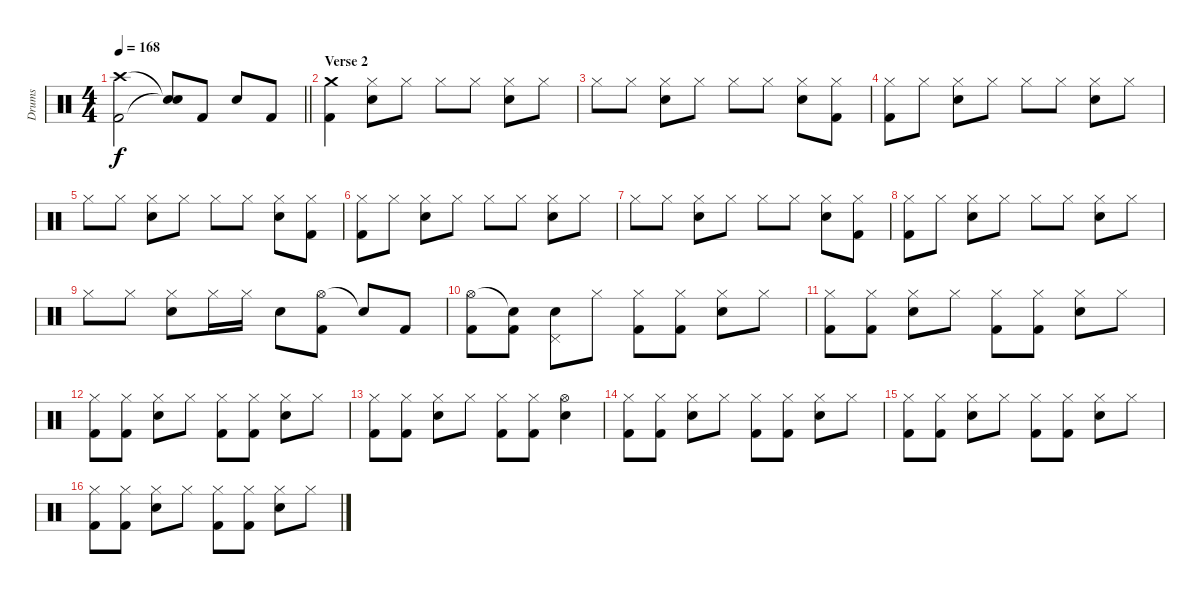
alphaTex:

\track ("Drums" "Drums") {instrument percussion}
\staff {score}
\articulation defaults
\ts (4 4)
\tempo 168
\clef neutral
\barLineRight lightlight
\ks c
("Crash high (hit)" "Kick (hit) 2").2{dy f} ("Snare (hit)"{t} "Snare (hit)"{t}).8 "Kick (hit) 2".8 "Electric Snare (hit)".8 "Kick (hit) 2".8 |
\section ("" "Verse 2")
("Crash medium (hit)" "Kick (hit) 2").4 ("Hi-Hat (closed)" "Electric Snare (hit)").8 "Hi-Hat (closed)".8 "Hi-Hat (closed)".8 "Hi-Hat (closed)".8 ("Hi-Hat (closed)" "Electric Snare (hit)").8 "Hi-Hat (closed)".8 |
"Hi-Hat (closed)".8 "Hi-Hat (closed)".8 ("Hi-Hat (closed)" "Electric Snare (hit)").8 "Hi-Hat (closed)".8 "Hi-Hat (closed)".8 "Hi-Hat (closed)".8 ("Hi-Hat (closed)" "Electric Snare (hit)").8 ("Hi-Hat (closed)" "Kick (hit) 2").8 |
("Hi-Hat (closed)" "Kick (hit) 2").8 "Hi-Hat (closed)".8 ("Hi-Hat (closed)" "Electric Snare (hit)").8 "Hi-Hat (closed)".8 "Hi-Hat (closed)".8 "Hi-Hat (closed)".8 ("Hi-Hat (closed)" "Electric Snare (hit)").8 "Hi-Hat (closed)".8 |
"Hi-Hat (closed)".8 "Hi-Hat (closed)".8 ("Hi-Hat (closed)" "Electric Snare (hit)").8 "Hi-Hat (closed)".8 "Hi-Hat (closed)".8 "Hi-Hat (closed)".8 ("Hi-Hat (closed)" "Electric Snare (hit)").8 ("Hi-Hat (closed)" "Kick (hit) 2").8 |
("Hi-Hat (closed)" "Kick (hit) 2").8 "Hi-Hat (closed)".8 ("Hi-Hat (closed)" "Electric Snare (hit)").8 "Hi-Hat (closed)".8 "Hi-Hat (closed)".8 "Hi-Hat (closed)".8 ("Hi-Hat (closed)" "Electric Snare (hit)").8 "Hi-Hat (closed)".8 |
"Hi-Hat (closed)".8 "Hi-Hat (closed)".8 ("Hi-Hat (closed)" "Electric Snare (hit)").8 "Hi-Hat (closed)".8 "Hi-Hat (closed)".8 "Hi-Hat (closed)".8 ("Hi-Hat (closed)" "Electric Snare (hit)").8 ("Hi-Hat (closed)" "Kick (hit) 2").8 |
("Hi-Hat (closed)" "Kick (hit) 2").8 "Hi-Hat (closed)".8 ("Hi-Hat (closed)" "Electric Snare (hit)").8 "Hi-Hat (closed)".8 "Hi-Hat (closed)".8 "Hi-Hat (closed)".8 ("Hi-Hat (closed)" "Electric Snare (hit)").8 "Hi-Hat (closed)".8 |
"Hi-Hat (closed)".8 "Hi-Hat (closed)".8 ("Hi-Hat (closed)" "Electric Snare (hit)").8 "Hi-Hat (closed)".16 "Hi-Hat (closed)".16 "Electric Snare (hit)".8 ("Hi-Hat (open)" "Kick (hit) 2").8 "Snare (hit)"{t}.8 "Kick (hit) 2".8 |
("Hi-Hat (open)" "Kick (hit) 2").8 ("Snare (hit)"{t} "Kick (hit) 2").8 ("Pedal Hi-Hat (hit)" "Electric Snare (hit)").8 "Hi-Hat (closed)".8 ("Hi-Hat (closed)" "Kick (hit) 2").8 ("Hi-Hat (closed)" "Kick (hit) 2").8 ("Hi-Hat (closed)" "Electric Snare (hit)").8 "Hi-Hat (closed)".8 |
("Hi-Hat (closed)" "Kick (hit) 2").8 ("Hi-Hat (closed)" "Kick (hit) 2").8 ("Hi-Hat (closed)" "Electric Snare (hit)").8 "Hi-Hat (closed)".8 ("Hi-Hat (closed)" "Kick (hit) 2").8 ("Hi-Hat (closed)" "Kick (hit) 2").8 ("Hi-Hat (closed)" "Electric Snare (hit)").8 "Hi-Hat (closed)".8 |
("Hi-Hat (closed)" "Kick (hit) 2").8 ("Hi-Hat (closed)" "Kick (hit) 2").8 ("Hi-Hat (closed)" "Electric Snare (hit)").8 "Hi-Hat (closed)".8 ("Hi-Hat (closed)" "Kick (hit) 2").8 ("Hi-Hat (closed)" "Kick (hit) 2").8 ("Hi-Hat (closed)" "Electric Snare (hit)").8 "Hi-Hat (closed)".8 |
("Hi-Hat (closed)" "Kick (hit) 2").8 ("Hi-Hat (closed)" "Kick (hit) 2").8 ("Hi-Hat (closed)" "Electric Snare (hit)").8 "Hi-Hat (closed)".8 ("Hi-Hat (closed)" "Kick (hit) 2").8 ("Hi-Hat (closed)" "Kick (hit) 2").8 ("Hi-Hat (open)" "Electric Snare (hit)").4 |
("Hi-Hat (closed)" "Kick (hit) 2").8 ("Hi-Hat (closed)" "Kick (hit) 2").8 ("Hi-Hat (closed)" "Electric Snare (hit)").8 "Hi-Hat (closed)".8 ("Hi-Hat (closed)" "Kick (hit) 2").8 ("Hi-Hat (closed)" "Kick (hit) 2").8 ("Hi-Hat (closed)" "Electric Snare (hit)").8 "Hi-Hat (closed)".8 |
("Hi-Hat (closed)" "Kick (hit) 2").8 ("Hi-Hat (closed)" "Kick (hit) 2").8 ("Hi-Hat (closed)" "Electric Snare (hit)").8 "Hi-Hat (closed)".8 ("Hi-Hat (closed)" "Kick (hit) 2").8 ("Hi-Hat (closed)" "Kick (hit) 2").8 ("Hi-Hat (closed)" "Electric Snare (hit)").8 "Hi-Hat (closed)".8 |
("Hi-Hat (closed)" "Kick (hit) 2").8 ("Hi-Hat (closed)" "Kick (hit) 2").8 ("Hi-Hat (closed)" "Electric Snare (hit)").8 "Hi-Hat (closed)".8 ("Hi-Hat (closed)" "Kick (hit) 2").8 ("Hi-Hat (closed)" "Kick (hit) 2").8 ("Hi-Hat (closed)" "Electric Snare (hit)").8 "Hi-Hat (closed)".8
